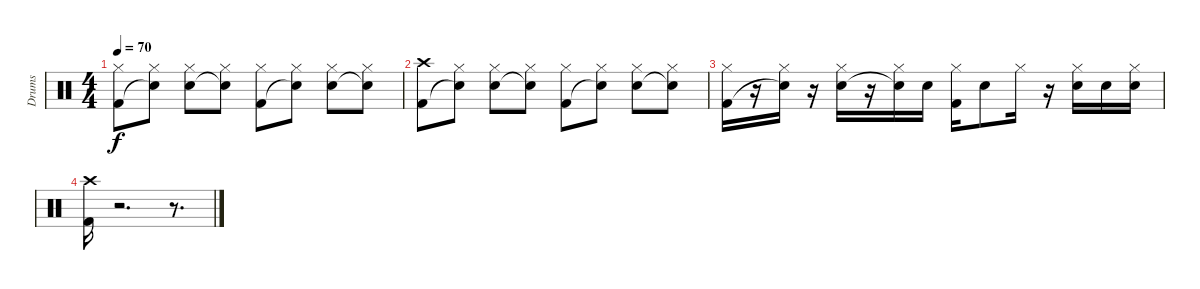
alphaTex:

\track ("Drums" "Drums") {instrument percussion}
\staff {score}
\articulation defaults
\ts (4 4)
\tempo 70
\clef neutral
\ks c
("Hi-Hat (closed)" "Kick (hit) 2").8{dy f} ("Hi-Hat (closed)" "Snare (hit)"{t}).8 ("Hi-Hat (closed)" "Electric Snare (hit)").8 ("Hi-Hat (closed)" "Snare (hit)"{t}).8 ("Hi-Hat (closed)" "Kick (hit) 2").8 ("Hi-Hat (closed)" "Snare (hit)"{t}).8 ("Hi-Hat (closed)" "Electric Snare (hit)").8 ("Hi-Hat (closed)" "Snare (hit)"{t}).8 |
("Crash high (hit)" "Kick (hit) 2").8 ("Hi-Hat (closed)" "Snare (hit)"{t}).8 ("Hi-Hat (closed)" "Electric Snare (hit)").8 ("Hi-Hat (closed)" "Snare (hit)"{t}).8 ("Hi-Hat (closed)" "Kick (hit) 2").8 ("Hi-Hat (closed)" "Snare (hit)"{t}).8 ("Hi-Hat (closed)" "Electric Snare (hit)").8 ("Hi-Hat (closed)" "Snare (hit)"{t}).8 |
("Hi-Hat (closed)" "Kick (hit) 2").16 r.16 ("Hi-Hat (closed)" "Snare (hit)"{t}).16 r.16 ("Hi-Hat (closed)" "Electric Snare (hit)").16 r.16 ("Hi-Hat (closed)" "Snare (hit)"{t}).16 "Electric Snare (hit)".16 ("Hi-Hat (closed)" "Kick (hit) 2").16 "Electric Snare (hit)".8 "Hi-Hat (closed)".16 r.16 ("Hi-Hat (closed)" "Electric Snare (hit)").16 "Electric Snare (hit)".16 ("Hi-Hat (closed)" "Electric Snare (hit)").16 |
("Crash high (hit)" "Kick (hit) 2").16 r.2{d} r.8{d}
